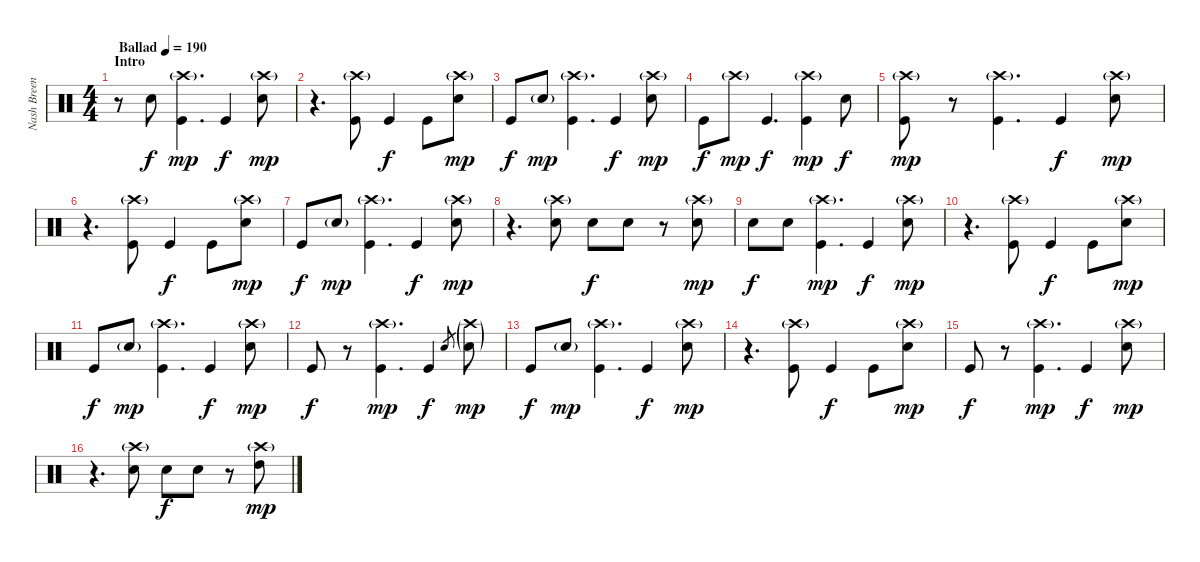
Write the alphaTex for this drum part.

\track ("Nash Breen (Percussion)" "Nash Breen") {instrument percussion}
\staff {score}
\articulation defaults
\ts (4 4)
\section ("" "Intro")
\tempo (190 "Ballad")
\clef neutral
\ks c
r.8{dy f} "Electric Snare (hit)".8 ("Kick (hit)" "Crash high (hit)"{g}).4{d dy mp} "Kick (hit)".4{dy f} ("Electric Snare (hit)" "Crash high (hit)"{g}).8{dy mp} |
r.4{d} ("Kick (hit)" "Crash high (hit)"{g}).8 "Kick (hit)".4{dy f} "Kick (hit)".8 ("Electric Snare (hit)" "Crash high (hit)"{g}).8{dy mp} |
"Kick (hit)".8{dy f} "Electric Snare (hit)"{g}.8{dy mp} ("Kick (hit)" "Crash high (hit)"{g}).4{d} "Kick (hit)".4{dy f} ("Electric Snare (hit)" "Crash high (hit)"{g}).8{dy mp} |
"Kick (hit)".8{dy f} "Crash high (hit)"{g}.8{dy mp} "Kick (hit)".4{d dy f} ("Kick (hit)" "Crash high (hit)"{g}).4{dy mp} "Electric Snare (hit)".8{dy f} |
("Kick (hit)" "Crash high (hit)"{g}).8{dy mp} r.8 ("Kick (hit)" "Crash high (hit)"{g}).4{d} "Kick (hit)".4{dy f} ("Electric Snare (hit)" "Crash high (hit)"{g}).8{dy mp} |
r.4{d} ("Kick (hit)" "Crash high (hit)"{g}).8 "Kick (hit)".4{dy f} "Kick (hit)".8 ("Electric Snare (hit)" "Crash high (hit)"{g}).8{dy mp} |
"Kick (hit)".8{dy f} "Electric Snare (hit)"{g}.8{dy mp} ("Kick (hit)" "Crash high (hit)"{g}).4{d} "Kick (hit)".4{dy f} ("Electric Snare (hit)" "Crash high (hit)"{g}).8{dy mp} |
r.4{d} ("Electric Snare (hit)" "Crash high (hit)"{g}).8 "Electric Snare (hit)".8{dy f} "Electric Snare (hit)".8 r.8 ("Electric Snare (hit)" "Crash high (hit)"{g}).8{dy mp} |
"Electric Snare (hit)".8{dy f} "Electric Snare (hit)".8 ("Kick (hit)" "Crash high (hit)"{g}).4{d dy mp} "Kick (hit)".4{dy f} ("Electric Snare (hit)" "Crash high (hit)"{g}).8{dy mp} |
r.4{d} ("Kick (hit)" "Crash high (hit)"{g}).8 "Kick (hit)".4{dy f} "Kick (hit)".8 ("Electric Snare (hit)" "Crash high (hit)"{g}).8{dy mp} |
"Kick (hit)".8{dy f} "Electric Snare (hit)"{g}.8{dy mp} ("Kick (hit)" "Crash high (hit)"{g}).4{d} "Kick (hit)".4{dy f} ("Electric Snare (hit)" "Crash high (hit)"{g}).8{dy mp} |
"Kick (hit)".8{dy f} r.8 ("Kick (hit)" "Crash high (hit)"{g}).4{d dy mp} "Kick (hit)".4{dy f} "Electric Snare (hit)".8{gr} ("Electric Snare (hit)"{g} "Crash high (hit)"{g}).8{dy mp} |
"Kick (hit)".8{dy f} "Electric Snare (hit)"{g}.8{dy mp} ("Kick (hit)" "Crash high (hit)"{g}).4{d} "Kick (hit)".4{dy f} ("Electric Snare (hit)" "Crash high (hit)"{g}).8{dy mp} |
r.4{d} ("Kick (hit)" "Crash high (hit)"{g}).8 "Kick (hit)".4{dy f} "Kick (hit)".8 ("Electric Snare (hit)" "Crash high (hit)"{g}).8{dy mp} |
"Kick (hit)".8{dy f} r.8 ("Kick (hit)" "Crash high (hit)"{g}).4{d dy mp} "Kick (hit)".4{dy f} ("Electric Snare (hit)" "Crash high (hit)"{g}).8{dy mp} |
r.4{d} ("Electric Snare (hit)" "Crash high (hit)"{g}).8 "Electric Snare (hit)".8{dy f} "Electric Snare (hit)".8 r.8 ("High Tom (hit)" "Crash high (hit)"{g}).8{dy mp}
